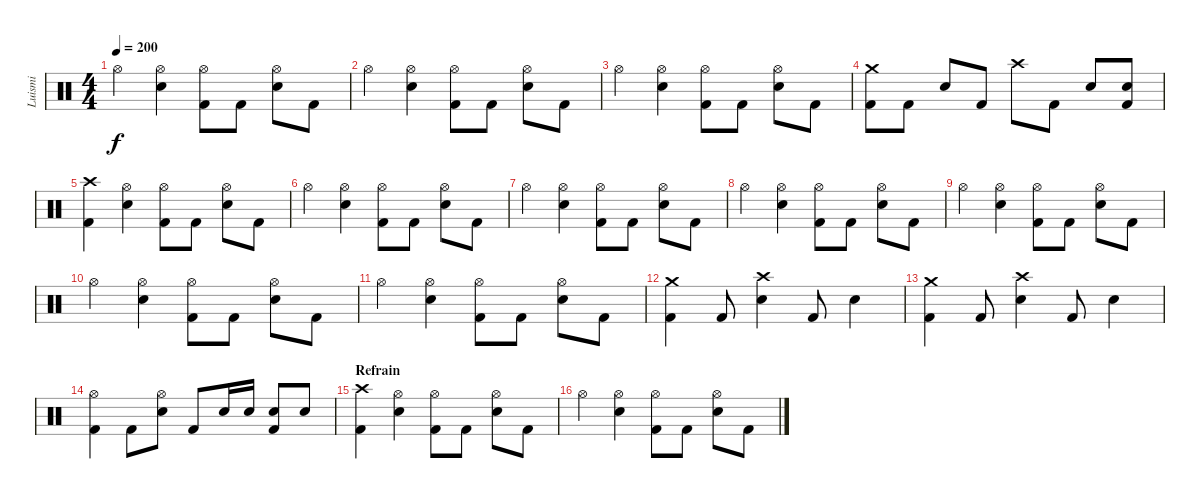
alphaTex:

\track ("Luismi" "Luismi") {instrument percussion}
\staff {score}
\articulation defaults
\ts (4 4)
\tempo 200
\clef neutral
\ks c "Hi-Hat (open)".4{dy f}
("Hi-Hat (open)" "Snare (hit) 2").4 ("Hi-Hat (open)" "Kick (hit) 2").8 "Kick (hit) 2".8 ("Hi-Hat (open)" "Snare (hit) 2").8 "Kick (hit) 2".8 |
"Hi-Hat (open)".4 ("Hi-Hat (open)" "Snare (hit) 2").4 ("Hi-Hat (open)" "Kick (hit) 2").8 "Kick (hit) 2".8 ("Hi-Hat (open)" "Snare (hit) 2").8 "Kick (hit) 2".8 |
"Hi-Hat (open)".4 ("Hi-Hat (open)" "Snare (hit) 2").4 ("Hi-Hat (open)" "Kick (hit) 2").8 "Kick (hit) 2".8 ("Hi-Hat (open)" "Snare (hit) 2").8 "Kick (hit) 2".8 |
("Crash medium (hit)" "Kick (hit) 2").8 "Kick (hit) 2".8 "Snare (hit) 2".8 "Kick (hit) 2".8 "Crash high (hit)".8 "Kick (hit) 2".8 "Snare (hit) 2".8 ("Snare (hit) 2" "Kick (hit) 2").8 |
("Crash high (hit)" "Kick (hit) 2").4 ("Hi-Hat (open)" "Snare (hit) 2").4 ("Hi-Hat (open)" "Kick (hit) 2").8 "Kick (hit) 2".8 ("Hi-Hat (open)" "Snare (hit) 2").8 "Kick (hit) 2".8 |
"Hi-Hat (open)".4 ("Hi-Hat (open)" "Snare (hit) 2").4 ("Hi-Hat (open)" "Kick (hit) 2").8 "Kick (hit) 2".8 ("Hi-Hat (open)" "Snare (hit) 2").8 "Kick (hit) 2".8 |
"Hi-Hat (open)".4 ("Hi-Hat (open)" "Snare (hit) 2").4 ("Hi-Hat (open)" "Kick (hit) 2").8 "Kick (hit) 2".8 ("Hi-Hat (open)" "Snare (hit) 2").8 "Kick (hit) 2".8 |
"Hi-Hat (open)".4 ("Hi-Hat (open)" "Snare (hit) 2").4 ("Hi-Hat (open)" "Kick (hit) 2").8 "Kick (hit) 2".8 ("Hi-Hat (open)" "Snare (hit) 2").8 "Kick (hit) 2".8 |
"Hi-Hat (open)".4 ("Hi-Hat (open)" "Snare (hit) 2").4 ("Hi-Hat (open)" "Kick (hit) 2").8 "Kick (hit) 2".8 ("Hi-Hat (open)" "Snare (hit) 2").8 "Kick (hit) 2".8 |
"Hi-Hat (open)".4 ("Hi-Hat (open)" "Snare (hit) 2").4 ("Hi-Hat (open)" "Kick (hit) 2").8 "Kick (hit) 2".8 ("Hi-Hat (open)" "Snare (hit) 2").8 "Kick (hit) 2".8 |
"Hi-Hat (open)".4 ("Hi-Hat (open)" "Snare (hit) 2").4 ("Hi-Hat (open)" "Kick (hit) 2").8 "Kick (hit) 2".8 ("Hi-Hat (open)" "Snare (hit) 2").8 "Kick (hit) 2".8 |
("Crash medium (hit)" "Kick (hit) 2").4 "Kick (hit) 2".8 ("Crash high (hit)" "Snare (hit) 2").4 "Kick (hit) 2".8 "Snare (hit) 2".4 |
("Crash medium (hit)" "Kick (hit) 2").4 "Kick (hit) 2".8 ("Crash high (hit)" "Snare (hit) 2").4 "Kick (hit) 2".8 "Snare (hit) 2".4 |
("Hi-Hat (open)" "Kick (hit) 2").4 "Kick (hit) 2".8 ("Hi-Hat (open)" "Snare (hit) 2").8 "Kick (hit) 2".8 "Snare (hit) 2".16 "Snare (hit) 2".16 ("Snare (hit) 2" "Kick (hit) 2").8 "Snare (hit) 2".8 |
\section ("" "Refrain")
("Crash high (hit)" "Kick (hit) 2").4 ("Hi-Hat (open)" "Snare (hit) 2").4 ("Hi-Hat (open)" "Kick (hit) 2").8 "Kick (hit) 2".8 ("Hi-Hat (open)" "Snare (hit) 2").8 "Kick (hit) 2".8 |
"Hi-Hat (open)".4 ("Hi-Hat (open)" "Snare (hit) 2").4 ("Hi-Hat (open)" "Kick (hit) 2").8 "Kick (hit) 2".8 ("Hi-Hat (open)" "Snare (hit) 2").8 "Kick (hit) 2".8
